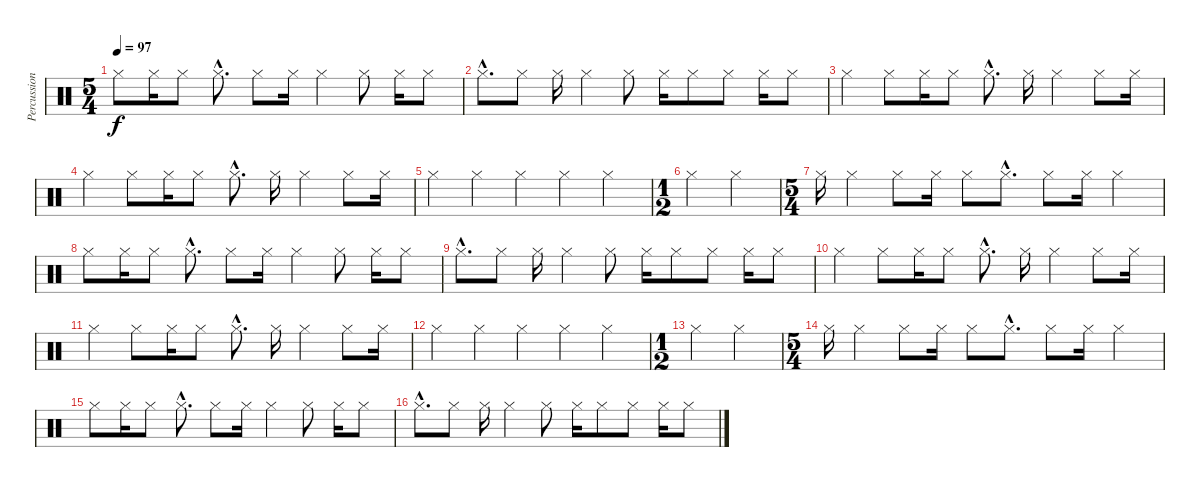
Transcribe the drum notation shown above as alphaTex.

\track ("Percussions" "Percussion") {instrument percussion}
\staff {score}
\articulation defaults
\ts (5 4)
\tempo 97
\clef neutral
\ks c "Hi-Hat (closed)".8{dy f} "Hi-Hat (closed)".16 "Hi-Hat (closed)".8 "Hi-Hat (closed)"{hac}.8{d} "Hi-Hat (closed)".8 "Hi-Hat (closed)".16 "Hi-Hat (closed)".4 "Hi-Hat (closed)".8 "Hi-Hat (closed)".16 "Hi-Hat (closed)".8
|
"Hi-Hat (closed)"{hac}.8{d} "Hi-Hat (closed)".8 "Hi-Hat (closed)".16 "Hi-Hat (closed)".4 "Hi-Hat (closed)".8 "Hi-Hat (closed)".16 "Hi-Hat (closed)".8 "Hi-Hat (closed)".8 "Hi-Hat (closed)".16 "Hi-Hat (closed)".8 |
"Hi-Hat (closed)".4 "Hi-Hat (closed)".8 "Hi-Hat (closed)".16 "Hi-Hat (closed)".8 "Hi-Hat (closed)"{hac}.8{d} "Hi-Hat (closed)".16 "Hi-Hat (closed)".4 "Hi-Hat (closed)".8 "Hi-Hat (closed)".16 |
"Hi-Hat (closed)".4 "Hi-Hat (closed)".8 "Hi-Hat (closed)".16 "Hi-Hat (closed)".8 "Hi-Hat (closed)"{hac}.8{d} "Hi-Hat (closed)".16 "Hi-Hat (closed)".4 "Hi-Hat (closed)".8 "Hi-Hat (closed)".16 |
"Hi-Hat (closed)".4 "Hi-Hat (closed)".4 "Hi-Hat (closed)".4 "Hi-Hat (closed)".4 "Hi-Hat (closed)".4 |
\ts (1 2)
"Hi-Hat (closed)".4 "Hi-Hat (closed)".4 |
\ts (5 4)
"Hi-Hat (closed)".16{volume 13} "Hi-Hat (closed)".4 "Hi-Hat (closed)".8 "Hi-Hat (closed)".16 "Hi-Hat (closed)".8 "Hi-Hat (closed)"{hac}.8{d} "Hi-Hat (closed)".8 "Hi-Hat (closed)".16 "Hi-Hat (closed)".4 |
"Hi-Hat (closed)".8 "Hi-Hat (closed)".16 "Hi-Hat (closed)".8 "Hi-Hat (closed)"{hac}.8{d} "Hi-Hat (closed)".8 "Hi-Hat (closed)".16 "Hi-Hat (closed)".4 "Hi-Hat (closed)".8 "Hi-Hat (closed)".16 "Hi-Hat (closed)".8 |
"Hi-Hat (closed)"{hac}.8{d} "Hi-Hat (closed)".8 "Hi-Hat (closed)".16 "Hi-Hat (closed)".4 "Hi-Hat (closed)".8 "Hi-Hat (closed)".16 "Hi-Hat (closed)".8 "Hi-Hat (closed)".8 "Hi-Hat (closed)".16 "Hi-Hat (closed)".8 |
"Hi-Hat (closed)".4 "Hi-Hat (closed)".8 "Hi-Hat (closed)".16 "Hi-Hat (closed)".8 "Hi-Hat (closed)"{hac}.8{d} "Hi-Hat (closed)".16 "Hi-Hat (closed)".4 "Hi-Hat (closed)".8 "Hi-Hat (closed)".16 |
"Hi-Hat (closed)".4 "Hi-Hat (closed)".8 "Hi-Hat (closed)".16 "Hi-Hat (closed)".8 "Hi-Hat (closed)"{hac}.8{d} "Hi-Hat (closed)".16 "Hi-Hat (closed)".4 "Hi-Hat (closed)".8 "Hi-Hat (closed)".16 |
"Hi-Hat (closed)".4 "Hi-Hat (closed)".4 "Hi-Hat (closed)".4 "Hi-Hat (closed)".4 "Hi-Hat (closed)".4 |
\ts (1 2)
"Hi-Hat (closed)".4 "Hi-Hat (closed)".4 |
\ts (5 4)
"Hi-Hat (closed)".16{volume 13} "Hi-Hat (closed)".4 "Hi-Hat (closed)".8 "Hi-Hat (closed)".16 "Hi-Hat (closed)".8 "Hi-Hat (closed)"{hac}.8{d} "Hi-Hat (closed)".8 "Hi-Hat (closed)".16 "Hi-Hat (closed)".4{volume 9} |
"Hi-Hat (closed)".8 "Hi-Hat (closed)".16 "Hi-Hat (closed)".8 "Hi-Hat (closed)"{hac}.8{d} "Hi-Hat (closed)".8 "Hi-Hat (closed)".16 "Hi-Hat (closed)".4 "Hi-Hat (closed)".8 "Hi-Hat (closed)".16 "Hi-Hat (closed)".8{volume 8} |
"Hi-Hat (closed)"{hac}.8{d} "Hi-Hat (closed)".8 "Hi-Hat (closed)".16 "Hi-Hat (closed)".4 "Hi-Hat (closed)".8 "Hi-Hat (closed)".16 "Hi-Hat (closed)".8 "Hi-Hat (closed)".8 "Hi-Hat (closed)".16 "Hi-Hat (closed)".8{volume 5}
